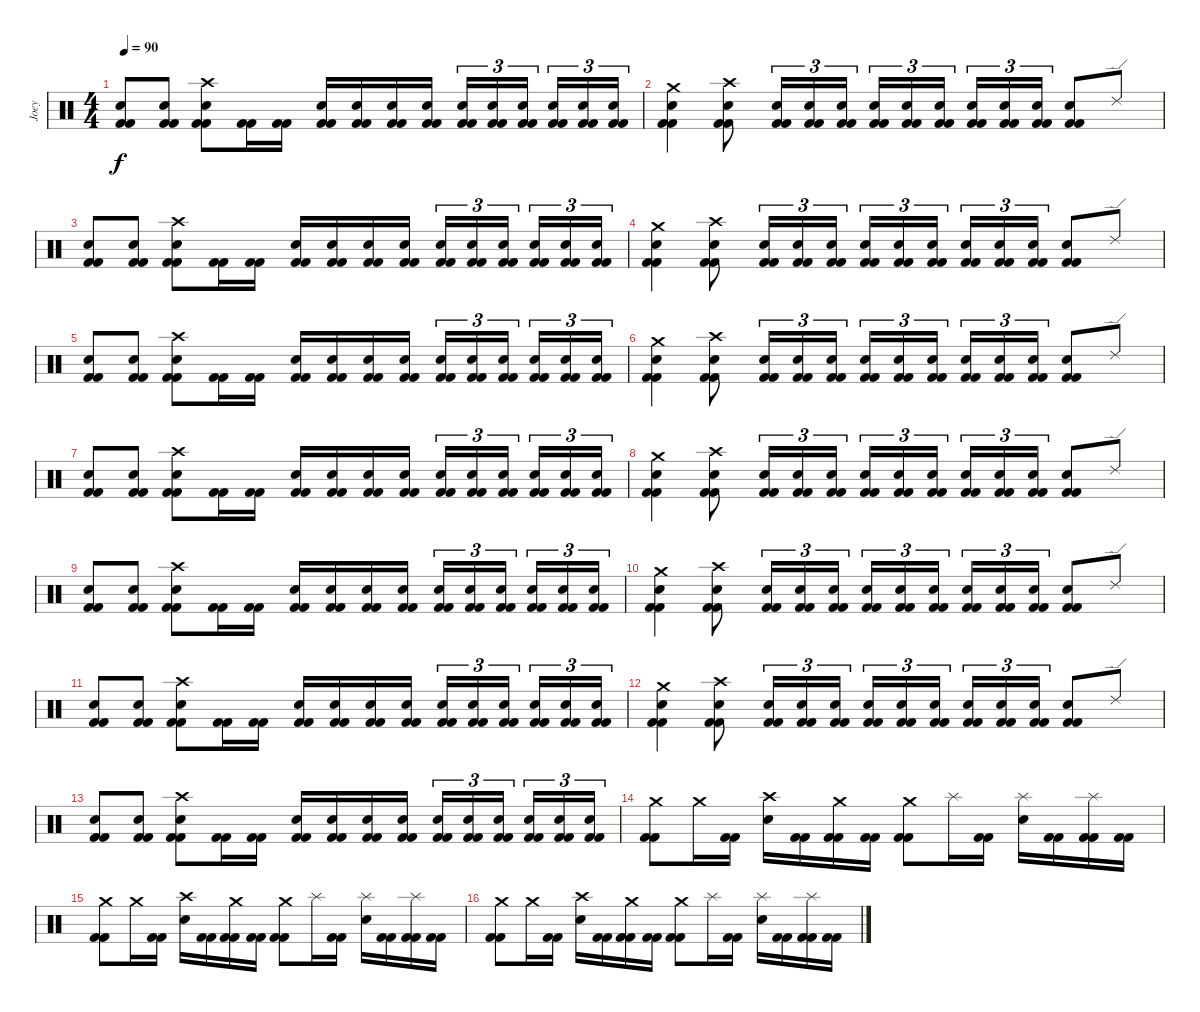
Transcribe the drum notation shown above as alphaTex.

\track ("Joey" "Joey") {instrument percussion}
\staff {score}
\articulation defaults
\ts (4 4)
\tempo 90
\clef neutral
\ks c
("Electric Snare (hit)" "Kick (hit) 2" "Kick (hit) 2").8{dy f} ("Electric Snare (hit)" "Kick (hit) 2" "Kick (hit) 2").8 ("Electric Snare (hit)" "Crash high (hit)" "Kick (hit) 2" "Kick (hit) 2").8 ("Kick (hit) 2" "Kick (hit) 2").16 ("Kick (hit) 2" "Kick (hit) 2").16 ("Electric Snare (hit)" "Kick (hit) 2" "Kick (hit) 2").16 ("Electric Snare (hit)" "Kick (hit) 2" "Kick (hit) 2").16 ("Electric Snare (hit)" "Kick (hit) 2" "Kick (hit) 2").16 ("Electric Snare (hit)" "Kick (hit) 2" "Kick (hit) 2").16 ("Electric Snare (hit)" "Kick (hit) 2" "Kick (hit) 2").16{tu (3 2)} ("Electric Snare (hit)" "Kick (hit) 2" "Kick (hit) 2").16{tu (3 2)} ("Electric Snare (hit)" "Kick (hit) 2" "Kick (hit) 2").16{tu (3 2)} ("Electric Snare (hit)" "Kick (hit) 2" "Kick (hit) 2").16{tu (3 2)} ("Electric Snare (hit)" "Kick (hit) 2" "Kick (hit) 2").16{tu (3 2)} ("Electric Snare (hit)" "Kick (hit) 2" "Kick (hit) 2").16{tu (3 2)} |
("Electric Snare (hit)" "Crash medium (hit)" "Kick (hit) 2" "Kick (hit) 2").4 ("Electric Snare (hit)" "Crash high (hit)" "Kick (hit) 2" "Kick (hit) 2").8 ("Electric Snare (hit)" "Kick (hit) 2" "Kick (hit) 2").16{tu (3 2)} ("Electric Snare (hit)" "Kick (hit) 2" "Kick (hit) 2").16{tu (3 2)} ("Electric Snare (hit)" "Kick (hit) 2" "Kick (hit) 2").16{tu (3 2)} ("Electric Snare (hit)" "Kick (hit) 2" "Kick (hit) 2").16{tu (3 2)} ("Electric Snare (hit)" "Kick (hit) 2" "Kick (hit) 2").16{tu (3 2)} ("Electric Snare (hit)" "Kick (hit) 2" "Kick (hit) 2").16{tu (3 2)} ("Electric Snare (hit)" "Kick (hit) 2" "Kick (hit) 2").16{tu (3 2)} ("Electric Snare (hit)" "Kick (hit) 2" "Kick (hit) 2").16{tu (3 2)} ("Electric Snare (hit)" "Kick (hit) 2" "Kick (hit) 2").16{tu (3 2)} ("Electric Snare (hit)" "Kick (hit) 2" "Kick (hit) 2").8 "Ride (edge) 2".8 |
("Electric Snare (hit)" "Kick (hit) 2" "Kick (hit) 2").8 ("Electric Snare (hit)" "Kick (hit) 2" "Kick (hit) 2").8 ("Electric Snare (hit)" "Crash high (hit)" "Kick (hit) 2" "Kick (hit) 2").8 ("Kick (hit) 2" "Kick (hit) 2").16 ("Kick (hit) 2" "Kick (hit) 2").16 ("Electric Snare (hit)" "Kick (hit) 2" "Kick (hit) 2").16 ("Electric Snare (hit)" "Kick (hit) 2" "Kick (hit) 2").16 ("Electric Snare (hit)" "Kick (hit) 2" "Kick (hit) 2").16 ("Electric Snare (hit)" "Kick (hit) 2" "Kick (hit) 2").16 ("Electric Snare (hit)" "Kick (hit) 2" "Kick (hit) 2").16{tu (3 2)} ("Electric Snare (hit)" "Kick (hit) 2" "Kick (hit) 2").16{tu (3 2)} ("Electric Snare (hit)" "Kick (hit) 2" "Kick (hit) 2").16{tu (3 2)} ("Electric Snare (hit)" "Kick (hit) 2" "Kick (hit) 2").16{tu (3 2)} ("Electric Snare (hit)" "Kick (hit) 2" "Kick (hit) 2").16{tu (3 2)} ("Electric Snare (hit)" "Kick (hit) 2" "Kick (hit) 2").16{tu (3 2)} |
("Electric Snare (hit)" "Crash medium (hit)" "Kick (hit) 2" "Kick (hit) 2").4 ("Electric Snare (hit)" "Crash high (hit)" "Kick (hit) 2" "Kick (hit) 2").8 ("Electric Snare (hit)" "Kick (hit) 2" "Kick (hit) 2").16{tu (3 2)} ("Electric Snare (hit)" "Kick (hit) 2" "Kick (hit) 2").16{tu (3 2)} ("Electric Snare (hit)" "Kick (hit) 2" "Kick (hit) 2").16{tu (3 2)} ("Electric Snare (hit)" "Kick (hit) 2" "Kick (hit) 2").16{tu (3 2)} ("Electric Snare (hit)" "Kick (hit) 2" "Kick (hit) 2").16{tu (3 2)} ("Electric Snare (hit)" "Kick (hit) 2" "Kick (hit) 2").16{tu (3 2)} ("Electric Snare (hit)" "Kick (hit) 2" "Kick (hit) 2").16{tu (3 2)} ("Electric Snare (hit)" "Kick (hit) 2" "Kick (hit) 2").16{tu (3 2)} ("Electric Snare (hit)" "Kick (hit) 2" "Kick (hit) 2").16{tu (3 2)} ("Electric Snare (hit)" "Kick (hit) 2" "Kick (hit) 2").8 "Ride (edge) 2".8 |
("Electric Snare (hit)" "Kick (hit) 2" "Kick (hit) 2").8 ("Electric Snare (hit)" "Kick (hit) 2" "Kick (hit) 2").8 ("Electric Snare (hit)" "Crash high (hit)" "Kick (hit) 2" "Kick (hit) 2").8 ("Kick (hit) 2" "Kick (hit) 2").16 ("Kick (hit) 2" "Kick (hit) 2").16 ("Electric Snare (hit)" "Kick (hit) 2" "Kick (hit) 2").16 ("Electric Snare (hit)" "Kick (hit) 2" "Kick (hit) 2").16 ("Electric Snare (hit)" "Kick (hit) 2" "Kick (hit) 2").16 ("Electric Snare (hit)" "Kick (hit) 2" "Kick (hit) 2").16 ("Electric Snare (hit)" "Kick (hit) 2" "Kick (hit) 2").16{tu (3 2)} ("Electric Snare (hit)" "Kick (hit) 2" "Kick (hit) 2").16{tu (3 2)} ("Electric Snare (hit)" "Kick (hit) 2" "Kick (hit) 2").16{tu (3 2)} ("Electric Snare (hit)" "Kick (hit) 2" "Kick (hit) 2").16{tu (3 2)} ("Electric Snare (hit)" "Kick (hit) 2" "Kick (hit) 2").16{tu (3 2)} ("Electric Snare (hit)" "Kick (hit) 2" "Kick (hit) 2").16{tu (3 2)} |
("Electric Snare (hit)" "Crash medium (hit)" "Kick (hit) 2" "Kick (hit) 2").4 ("Electric Snare (hit)" "Crash high (hit)" "Kick (hit) 2" "Kick (hit) 2").8 ("Electric Snare (hit)" "Kick (hit) 2" "Kick (hit) 2").16{tu (3 2)} ("Electric Snare (hit)" "Kick (hit) 2" "Kick (hit) 2").16{tu (3 2)} ("Electric Snare (hit)" "Kick (hit) 2" "Kick (hit) 2").16{tu (3 2)} ("Electric Snare (hit)" "Kick (hit) 2" "Kick (hit) 2").16{tu (3 2)} ("Electric Snare (hit)" "Kick (hit) 2" "Kick (hit) 2").16{tu (3 2)} ("Electric Snare (hit)" "Kick (hit) 2" "Kick (hit) 2").16{tu (3 2)} ("Electric Snare (hit)" "Kick (hit) 2" "Kick (hit) 2").16{tu (3 2)} ("Electric Snare (hit)" "Kick (hit) 2" "Kick (hit) 2").16{tu (3 2)} ("Electric Snare (hit)" "Kick (hit) 2" "Kick (hit) 2").16{tu (3 2)} ("Electric Snare (hit)" "Kick (hit) 2" "Kick (hit) 2").8 "Ride (edge) 2".8 |
("Electric Snare (hit)" "Kick (hit) 2" "Kick (hit) 2").8 ("Electric Snare (hit)" "Kick (hit) 2" "Kick (hit) 2").8 ("Electric Snare (hit)" "Crash high (hit)" "Kick (hit) 2" "Kick (hit) 2").8 ("Kick (hit) 2" "Kick (hit) 2").16 ("Kick (hit) 2" "Kick (hit) 2").16 ("Electric Snare (hit)" "Kick (hit) 2" "Kick (hit) 2").16 ("Electric Snare (hit)" "Kick (hit) 2" "Kick (hit) 2").16 ("Electric Snare (hit)" "Kick (hit) 2" "Kick (hit) 2").16 ("Electric Snare (hit)" "Kick (hit) 2" "Kick (hit) 2").16 ("Electric Snare (hit)" "Kick (hit) 2" "Kick (hit) 2").16{tu (3 2)} ("Electric Snare (hit)" "Kick (hit) 2" "Kick (hit) 2").16{tu (3 2)} ("Electric Snare (hit)" "Kick (hit) 2" "Kick (hit) 2").16{tu (3 2)} ("Electric Snare (hit)" "Kick (hit) 2" "Kick (hit) 2").16{tu (3 2)} ("Electric Snare (hit)" "Kick (hit) 2" "Kick (hit) 2").16{tu (3 2)} ("Electric Snare (hit)" "Kick (hit) 2" "Kick (hit) 2").16{tu (3 2)} |
("Electric Snare (hit)" "Crash medium (hit)" "Kick (hit) 2" "Kick (hit) 2").4 ("Electric Snare (hit)" "Crash high (hit)" "Kick (hit) 2" "Kick (hit) 2").8 ("Electric Snare (hit)" "Kick (hit) 2" "Kick (hit) 2").16{tu (3 2)} ("Electric Snare (hit)" "Kick (hit) 2" "Kick (hit) 2").16{tu (3 2)} ("Electric Snare (hit)" "Kick (hit) 2" "Kick (hit) 2").16{tu (3 2)} ("Electric Snare (hit)" "Kick (hit) 2" "Kick (hit) 2").16{tu (3 2)} ("Electric Snare (hit)" "Kick (hit) 2" "Kick (hit) 2").16{tu (3 2)} ("Electric Snare (hit)" "Kick (hit) 2" "Kick (hit) 2").16{tu (3 2)} ("Electric Snare (hit)" "Kick (hit) 2" "Kick (hit) 2").16{tu (3 2)} ("Electric Snare (hit)" "Kick (hit) 2" "Kick (hit) 2").16{tu (3 2)} ("Electric Snare (hit)" "Kick (hit) 2" "Kick (hit) 2").16{tu (3 2)} ("Electric Snare (hit)" "Kick (hit) 2" "Kick (hit) 2").8 "Ride (edge) 2".8 |
("Electric Snare (hit)" "Kick (hit) 2" "Kick (hit) 2").8 ("Electric Snare (hit)" "Kick (hit) 2" "Kick (hit) 2").8 ("Electric Snare (hit)" "Crash high (hit)" "Kick (hit) 2" "Kick (hit) 2").8 ("Kick (hit) 2" "Kick (hit) 2").16 ("Kick (hit) 2" "Kick (hit) 2").16 ("Electric Snare (hit)" "Kick (hit) 2" "Kick (hit) 2").16 ("Electric Snare (hit)" "Kick (hit) 2" "Kick (hit) 2").16 ("Electric Snare (hit)" "Kick (hit) 2" "Kick (hit) 2").16 ("Electric Snare (hit)" "Kick (hit) 2" "Kick (hit) 2").16 ("Electric Snare (hit)" "Kick (hit) 2" "Kick (hit) 2").16{tu (3 2)} ("Electric Snare (hit)" "Kick (hit) 2" "Kick (hit) 2").16{tu (3 2)} ("Electric Snare (hit)" "Kick (hit) 2" "Kick (hit) 2").16{tu (3 2)} ("Electric Snare (hit)" "Kick (hit) 2" "Kick (hit) 2").16{tu (3 2)} ("Electric Snare (hit)" "Kick (hit) 2" "Kick (hit) 2").16{tu (3 2)} ("Electric Snare (hit)" "Kick (hit) 2" "Kick (hit) 2").16{tu (3 2)} |
("Electric Snare (hit)" "Crash medium (hit)" "Kick (hit) 2" "Kick (hit) 2").4 ("Electric Snare (hit)" "Crash high (hit)" "Kick (hit) 2" "Kick (hit) 2").8 ("Electric Snare (hit)" "Kick (hit) 2" "Kick (hit) 2").16{tu (3 2)} ("Electric Snare (hit)" "Kick (hit) 2" "Kick (hit) 2").16{tu (3 2)} ("Electric Snare (hit)" "Kick (hit) 2" "Kick (hit) 2").16{tu (3 2)} ("Electric Snare (hit)" "Kick (hit) 2" "Kick (hit) 2").16{tu (3 2)} ("Electric Snare (hit)" "Kick (hit) 2" "Kick (hit) 2").16{tu (3 2)} ("Electric Snare (hit)" "Kick (hit) 2" "Kick (hit) 2").16{tu (3 2)} ("Electric Snare (hit)" "Kick (hit) 2" "Kick (hit) 2").16{tu (3 2)} ("Electric Snare (hit)" "Kick (hit) 2" "Kick (hit) 2").16{tu (3 2)} ("Electric Snare (hit)" "Kick (hit) 2" "Kick (hit) 2").16{tu (3 2)} ("Electric Snare (hit)" "Kick (hit) 2" "Kick (hit) 2").8 "Ride (edge) 2".8 |
("Electric Snare (hit)" "Kick (hit) 2" "Kick (hit) 2").8 ("Electric Snare (hit)" "Kick (hit) 2" "Kick (hit) 2").8 ("Electric Snare (hit)" "Crash high (hit)" "Kick (hit) 2" "Kick (hit) 2").8 ("Kick (hit) 2" "Kick (hit) 2").16 ("Kick (hit) 2" "Kick (hit) 2").16 ("Electric Snare (hit)" "Kick (hit) 2" "Kick (hit) 2").16 ("Electric Snare (hit)" "Kick (hit) 2" "Kick (hit) 2").16 ("Electric Snare (hit)" "Kick (hit) 2" "Kick (hit) 2").16 ("Electric Snare (hit)" "Kick (hit) 2" "Kick (hit) 2").16 ("Electric Snare (hit)" "Kick (hit) 2" "Kick (hit) 2").16{tu (3 2)} ("Electric Snare (hit)" "Kick (hit) 2" "Kick (hit) 2").16{tu (3 2)} ("Electric Snare (hit)" "Kick (hit) 2" "Kick (hit) 2").16{tu (3 2)} ("Electric Snare (hit)" "Kick (hit) 2" "Kick (hit) 2").16{tu (3 2)} ("Electric Snare (hit)" "Kick (hit) 2" "Kick (hit) 2").16{tu (3 2)} ("Electric Snare (hit)" "Kick (hit) 2" "Kick (hit) 2").16{tu (3 2)} |
("Electric Snare (hit)" "Crash medium (hit)" "Kick (hit) 2" "Kick (hit) 2").4 ("Electric Snare (hit)" "Crash high (hit)" "Kick (hit) 2" "Kick (hit) 2").8 ("Electric Snare (hit)" "Kick (hit) 2" "Kick (hit) 2").16{tu (3 2)} ("Electric Snare (hit)" "Kick (hit) 2" "Kick (hit) 2").16{tu (3 2)} ("Electric Snare (hit)" "Kick (hit) 2" "Kick (hit) 2").16{tu (3 2)} ("Electric Snare (hit)" "Kick (hit) 2" "Kick (hit) 2").16{tu (3 2)} ("Electric Snare (hit)" "Kick (hit) 2" "Kick (hit) 2").16{tu (3 2)} ("Electric Snare (hit)" "Kick (hit) 2" "Kick (hit) 2").16{tu (3 2)} ("Electric Snare (hit)" "Kick (hit) 2" "Kick (hit) 2").16{tu (3 2)} ("Electric Snare (hit)" "Kick (hit) 2" "Kick (hit) 2").16{tu (3 2)} ("Electric Snare (hit)" "Kick (hit) 2" "Kick (hit) 2").16{tu (3 2)} ("Electric Snare (hit)" "Kick (hit) 2" "Kick (hit) 2").8 "Ride (edge) 2".8 |
("Electric Snare (hit)" "Kick (hit) 2" "Kick (hit) 2").8 ("Electric Snare (hit)" "Kick (hit) 2" "Kick (hit) 2").8 ("Electric Snare (hit)" "Crash high (hit)" "Kick (hit) 2" "Kick (hit) 2").8 ("Kick (hit) 2" "Kick (hit) 2").16 ("Kick (hit) 2" "Kick (hit) 2").16 ("Electric Snare (hit)" "Kick (hit) 2" "Kick (hit) 2").16 ("Electric Snare (hit)" "Kick (hit) 2" "Kick (hit) 2").16 ("Electric Snare (hit)" "Kick (hit) 2" "Kick (hit) 2").16 ("Electric Snare (hit)" "Kick (hit) 2" "Kick (hit) 2").16 ("Electric Snare (hit)" "Kick (hit) 2" "Kick (hit) 2").16{tu (3 2)} ("Electric Snare (hit)" "Kick (hit) 2" "Kick (hit) 2").16{tu (3 2)} ("Electric Snare (hit)" "Kick (hit) 2" "Kick (hit) 2").16{tu (3 2)} ("Electric Snare (hit)" "Kick (hit) 2" "Kick (hit) 2").16{tu (3 2)} ("Electric Snare (hit)" "Kick (hit) 2" "Kick (hit) 2").16{tu (3 2)} ("Electric Snare (hit)" "Kick (hit) 2" "Kick (hit) 2").16{tu (3 2)} |
("Crash medium (hit)" "Kick (hit) 2" "Kick (hit) 2").8 "Crash medium (hit)".16 ("Kick (hit) 2" "Kick (hit) 2").16 ("Electric Snare (hit)" "Crash high (hit)").16 ("Kick (hit) 2" "Kick (hit) 2").16 ("Crash medium (hit)" "Kick (hit) 2" "Kick (hit) 2").16 ("Kick (hit) 2" "Kick (hit) 2").16 ("Crash medium (hit)" "Kick (hit) 2" "Kick (hit) 2").8 "Splash (hit)".16 ("Kick (hit) 2" "Kick (hit) 2").16 ("Electric Snare (hit)" "Splash (hit)").16 ("Kick (hit) 2" "Kick (hit) 2").16 ("Splash (hit)" "Kick (hit) 2" "Kick (hit) 2").16 ("Kick (hit) 2" "Kick (hit) 2").16 |
("Crash medium (hit)" "Kick (hit) 2" "Kick (hit) 2").8 "Crash medium (hit)".16 ("Kick (hit) 2" "Kick (hit) 2").16 ("Electric Snare (hit)" "Crash high (hit)").16 ("Kick (hit) 2" "Kick (hit) 2").16 ("Crash medium (hit)" "Kick (hit) 2" "Kick (hit) 2").16 ("Kick (hit) 2" "Kick (hit) 2").16 ("Crash medium (hit)" "Kick (hit) 2" "Kick (hit) 2").8 "Splash (hit)".16 ("Kick (hit) 2" "Kick (hit) 2").16 ("Electric Snare (hit)" "Splash (hit)").16 ("Kick (hit) 2" "Kick (hit) 2").16 ("Splash (hit)" "Kick (hit) 2" "Kick (hit) 2").16 ("Kick (hit) 2" "Kick (hit) 2").16 |
("Crash medium (hit)" "Kick (hit) 2" "Kick (hit) 2").8 "Crash medium (hit)".16 ("Kick (hit) 2" "Kick (hit) 2").16 ("Electric Snare (hit)" "Crash high (hit)").16 ("Kick (hit) 2" "Kick (hit) 2").16 ("Crash medium (hit)" "Kick (hit) 2" "Kick (hit) 2").16 ("Kick (hit) 2" "Kick (hit) 2").16 ("Crash medium (hit)" "Kick (hit) 2" "Kick (hit) 2").8 "Splash (hit)".16 ("Kick (hit) 2" "Kick (hit) 2").16 ("Electric Snare (hit)" "Splash (hit)").16 ("Kick (hit) 2" "Kick (hit) 2").16 ("Splash (hit)" "Kick (hit) 2" "Kick (hit) 2").16 ("Kick (hit) 2" "Kick (hit) 2").16
